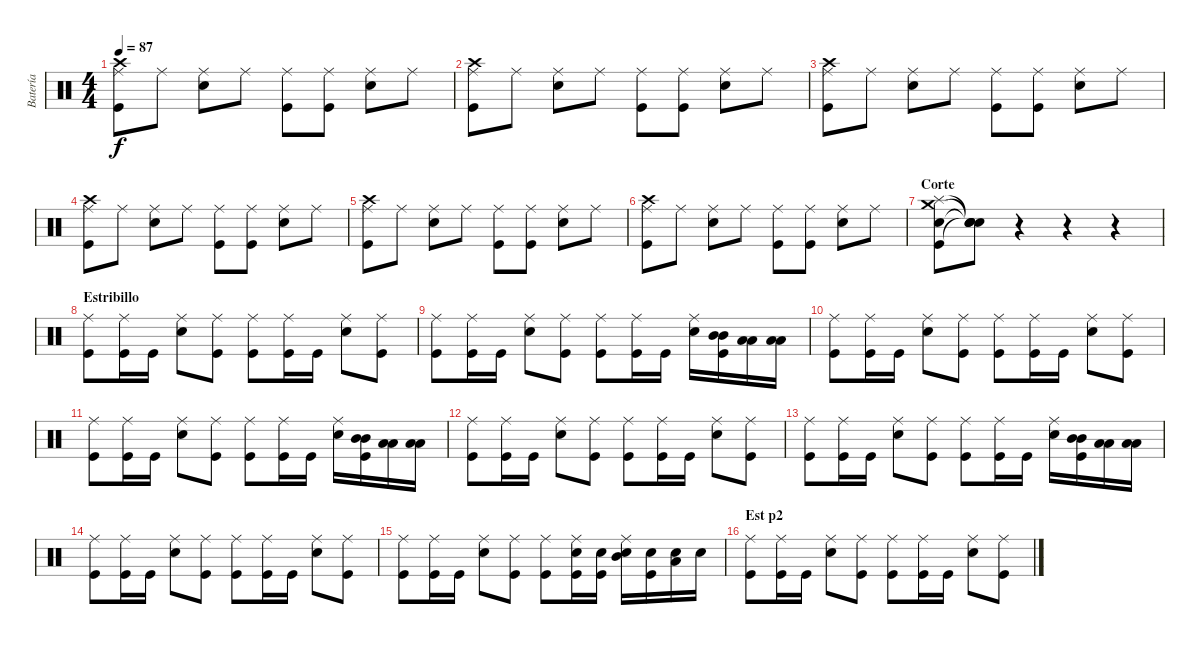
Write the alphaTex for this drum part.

\track ("Batería" "Batería") {instrument percussion}
\staff {score}
\articulation defaults
\ts (4 4)
\tempo 87
\clef neutral
\ks c
("Crash high (hit)" "Ride (middle)" "Kick (hit)").8{dy f} "Ride (middle)".8 ("Ride (middle)" "Snare (hit) 2").8 "Ride (middle)".8 ("Ride (middle)" "Kick (hit)").8 ("Ride (middle)" "Kick (hit)").8 ("Ride (middle)" "Snare (hit) 2").8 "Ride (middle)".8 |
("Crash high (hit)" "Ride (middle)" "Kick (hit)").8 "Ride (middle)".8 ("Ride (middle)" "Snare (hit) 2").8 "Ride (middle)".8 ("Ride (middle)" "Kick (hit)").8 ("Ride (middle)" "Kick (hit)").8 ("Ride (middle)" "Snare (hit) 2").8 "Ride (middle)".8 |
("Crash high (hit)" "Ride (middle)" "Kick (hit)").8 "Ride (middle)".8 ("Ride (middle)" "Snare (hit) 2").8 "Ride (middle)".8 ("Ride (middle)" "Kick (hit)").8 ("Ride (middle)" "Kick (hit)").8 ("Ride (middle)" "Snare (hit) 2").8 "Ride (middle)".8 |
("Crash high (hit)" "Ride (middle)" "Kick (hit)").8 "Ride (middle)".8 ("Ride (middle)" "Snare (hit) 2").8 "Ride (middle)".8 ("Ride (middle)" "Kick (hit)").8 ("Ride (middle)" "Kick (hit)").8 ("Ride (middle)" "Snare (hit) 2").8 "Ride (middle)".8 |
("Crash high (hit)" "Ride (middle)" "Kick (hit)").8 "Ride (middle)".8 ("Ride (middle)" "Snare (hit) 2").8 "Ride (middle)".8 ("Ride (middle)" "Kick (hit)").8 ("Ride (middle)" "Kick (hit)").8 ("Ride (middle)" "Snare (hit) 2").8 "Ride (middle)".8 |
("Crash high (hit)" "Ride (middle)" "Kick (hit)").8 "Ride (middle)".8 ("Ride (middle)" "Snare (hit) 2").8 "Ride (middle)".8 ("Ride (middle)" "Kick (hit)").8 ("Ride (middle)" "Kick (hit)").8 ("Ride (middle)" "Snare (hit) 2").8 "Ride (middle)".8 |
\section ("" "Corte")
("Crash medium (hit)" "Splash (hit)" "Snare (hit) 2" "Kick (hit)").8 ("Snare (hit)"{t} "Snare (hit)"{t} "Snare (hit)"{t} "Snare (hit)"{t}).8 r.4 r.4 r.4 |
\section ("" "Estribillo")
("Ride (middle)" "Kick (hit)").8 ("Ride (middle)" "Kick (hit)").16 "Kick (hit)".16 ("Ride (middle)" "Snare (hit) 2").8 ("Ride (middle)" "Kick (hit)").8 ("Ride (middle)" "Kick (hit)").8 ("Ride (middle)" "Kick (hit)").16 "Kick (hit)".16 ("Ride (middle)" "Snare (hit) 2").8 ("Ride (middle)" "Kick (hit)").8 |
("Ride (middle)" "Kick (hit)").8 ("Ride (middle)" "Kick (hit)").16 "Kick (hit)".16 ("Ride (middle)" "Snare (hit) 2").8 ("Ride (middle)" "Kick (hit)").8 ("Ride (middle)" "Kick (hit)").8 ("Ride (middle)" "Kick (hit)").16 "Kick (hit)".16 ("Ride (middle)" "Snare (hit) 2").16 ("Mid Tom (hit)" "Mid Tom (hit)" "Kick (hit)").16 ("Low Tom (hit)" "Low Tom (hit)").16 ("Low Floor Tom (hit)" "Low Floor Tom (hit)").16 |
("Ride (middle)" "Kick (hit)").8 ("Ride (middle)" "Kick (hit)").16 "Kick (hit)".16 ("Ride (middle)" "Snare (hit) 2").8 ("Ride (middle)" "Kick (hit)").8 ("Ride (middle)" "Kick (hit)").8 ("Ride (middle)" "Kick (hit)").16 "Kick (hit)".16 ("Ride (middle)" "Snare (hit) 2").8 ("Ride (middle)" "Kick (hit)").8 |
("Ride (middle)" "Kick (hit)").8 ("Ride (middle)" "Kick (hit)").16 "Kick (hit)".16 ("Ride (middle)" "Snare (hit) 2").8 ("Ride (middle)" "Kick (hit)").8 ("Ride (middle)" "Kick (hit)").8 ("Ride (middle)" "Kick (hit)").16 "Kick (hit)".16 ("Ride (middle)" "Snare (hit) 2").16 ("Mid Tom (hit)" "Mid Tom (hit)" "Kick (hit)").16 ("Low Tom (hit)" "Low Tom (hit)").16 ("Low Floor Tom (hit)" "Low Floor Tom (hit)").16 |
("Ride (middle)" "Kick (hit)").8 ("Ride (middle)" "Kick (hit)").16 "Kick (hit)".16 ("Ride (middle)" "Snare (hit) 2").8 ("Ride (middle)" "Kick (hit)").8 ("Ride (middle)" "Kick (hit)").8 ("Ride (middle)" "Kick (hit)").16 "Kick (hit)".16 ("Ride (middle)" "Snare (hit) 2").8 ("Ride (middle)" "Kick (hit)").8 |
("Ride (middle)" "Kick (hit)").8 ("Ride (middle)" "Kick (hit)").16 "Kick (hit)".16 ("Ride (middle)" "Snare (hit) 2").8 ("Ride (middle)" "Kick (hit)").8 ("Ride (middle)" "Kick (hit)").8 ("Ride (middle)" "Kick (hit)").16 "Kick (hit)".16 ("Ride (middle)" "Snare (hit) 2").16 ("Mid Tom (hit)" "Mid Tom (hit)" "Kick (hit)").16 ("Low Tom (hit)" "Low Tom (hit)").16 ("Low Floor Tom (hit)" "Low Floor Tom (hit)").16 |
("Ride (middle)" "Kick (hit)").8 ("Ride (middle)" "Kick (hit)").16 "Kick (hit)".16 ("Ride (middle)" "Snare (hit) 2").8 ("Ride (middle)" "Kick (hit)").8 ("Ride (middle)" "Kick (hit)").8 ("Ride (middle)" "Kick (hit)").16 "Kick (hit)".16 ("Ride (middle)" "Snare (hit) 2").8 ("Ride (middle)" "Kick (hit)").8 |
("Ride (middle)" "Kick (hit)").8 ("Ride (middle)" "Kick (hit)").16 "Kick (hit)".16 ("Ride (middle)" "Snare (hit) 2").8 ("Ride (middle)" "Kick (hit)").8 ("Ride (middle)" "Kick (hit)").8 ("Ride (middle)" "Snare (hit) 2" "Kick (hit)").16 ("Snare (hit) 2" "Kick (hit)").16 ("Mid Tom (hit)" "Ride (middle)" "Snare (hit) 2").16 ("Snare (hit) 2" "Kick (hit)").16 ("Low Floor Tom (hit)" "Snare (hit) 2").16 "Snare (hit) 2".16 |
\section ("" "Est p2")
("Ride (middle)" "Kick (hit)").8 ("Ride (middle)" "Kick (hit)").16 "Kick (hit)".16 ("Ride (middle)" "Snare (hit) 2").8 ("Ride (middle)" "Kick (hit)").8 ("Ride (middle)" "Kick (hit)").8 ("Ride (middle)" "Kick (hit)").16 "Kick (hit)".16 ("Ride (middle)" "Snare (hit) 2").8 ("Ride (middle)" "Kick (hit)").8
